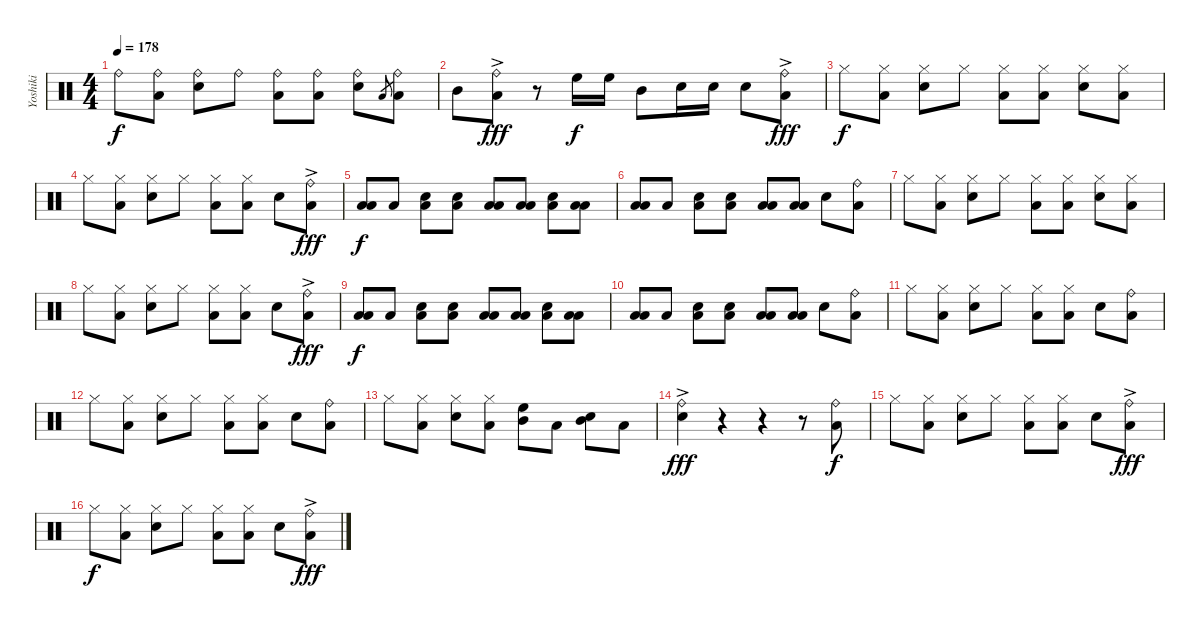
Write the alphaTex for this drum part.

\track ("Yoshiki" "Yoshiki") {instrument percussion}
\staff {score}
\articulation defaults
\ts (4 4)
\tempo 178
\clef neutral
\ks c "Ride (bell)".8{dy f}
("Ride (bell)" "Low Floor Tom (hit)").8 ("Ride (bell)" "Snare (hit) 2").8 "Ride (bell)".8 ("Ride (bell)" "Low Floor Tom (hit)").8 ("Ride (bell)" "Low Floor Tom (hit)").8 ("Ride (bell)" "Snare (hit) 2").8 "Low Floor Tom (hit)".8{gr} ("Ride (bell)" "Low Floor Tom (hit)").8 |
"Mid Tom (hit)".8 ("Ride (bell)"{ac} "Low Floor Tom (hit)").8{dy fff} r.8 "High Floor Tom (hit)".16{dy f} "High Floor Tom (hit)".16 "Mid Tom (hit)".8 "Snare (hit) 2".16 "Snare (hit) 2".16 "Snare (hit) 2".8 ("Ride (bell)"{ac} "Low Floor Tom (hit)").8{dy fff} |
"Hi-Hat (closed)".8{dy f} ("Hi-Hat (closed)" "Low Floor Tom (hit)").8 ("Hi-Hat (closed)" "Snare (hit) 2").8 "Hi-Hat (closed)".8 ("Hi-Hat (closed)" "Low Floor Tom (hit)").8 ("Hi-Hat (closed)" "Low Floor Tom (hit)").8 ("Hi-Hat (closed)" "Snare (hit) 2").8 ("Hi-Hat (closed)" "Low Floor Tom (hit)").8 |
"Hi-Hat (closed)".8 ("Hi-Hat (closed)" "Low Floor Tom (hit)").8 ("Hi-Hat (closed)" "Snare (hit) 2").8 "Hi-Hat (closed)".8 ("Hi-Hat (closed)" "Low Floor Tom (hit)").8 ("Hi-Hat (closed)" "Low Floor Tom (hit)").8 "Snare (hit) 2".8 ("Ride (bell)"{ac} "Low Floor Tom (hit)").8{dy fff} |
("Low Tom (hit)" "Low Floor Tom (hit)").8{dy f} "Low Tom (hit)".8 ("Low Tom (hit)" "Snare (hit) 2").8 ("Low Tom (hit)" "Snare (hit) 2").8 ("Low Tom (hit)" "Low Floor Tom (hit)").8 ("Low Tom (hit)" "Low Floor Tom (hit)").8 ("Low Tom (hit)" "Snare (hit) 2").8 ("Low Tom (hit)" "Low Floor Tom (hit)").8 |
("Low Tom (hit)" "Low Floor Tom (hit)").8 "Low Tom (hit)".8 ("Low Tom (hit)" "Snare (hit) 2").8 ("Low Tom (hit)" "Snare (hit) 2").8 ("Low Tom (hit)" "Low Floor Tom (hit)").8 ("Low Tom (hit)" "Low Floor Tom (hit)").8 "Snare (hit) 2".8 ("Ride (bell)" "Low Floor Tom (hit)").8 |
"Hi-Hat (closed)".8 ("Hi-Hat (closed)" "Low Floor Tom (hit)").8 ("Hi-Hat (closed)" "Snare (hit) 2").8 "Hi-Hat (closed)".8 ("Hi-Hat (closed)" "Low Floor Tom (hit)").8 ("Hi-Hat (closed)" "Low Floor Tom (hit)").8 ("Hi-Hat (closed)" "Snare (hit) 2").8 ("Hi-Hat (closed)" "Low Floor Tom (hit)").8 |
"Hi-Hat (closed)".8 ("Hi-Hat (closed)" "Low Floor Tom (hit)").8 ("Hi-Hat (closed)" "Snare (hit) 2").8 "Hi-Hat (closed)".8 ("Hi-Hat (closed)" "Low Floor Tom (hit)").8 ("Hi-Hat (closed)" "Low Floor Tom (hit)").8 "Snare (hit) 2".8 ("Ride (bell)"{ac} "Low Floor Tom (hit)").8{dy fff} |
("Low Tom (hit)" "Low Floor Tom (hit)").8{dy f} "Low Tom (hit)".8 ("Low Tom (hit)" "Snare (hit) 2").8 ("Low Tom (hit)" "Snare (hit) 2").8 ("Low Tom (hit)" "Low Floor Tom (hit)").8 ("Low Tom (hit)" "Low Floor Tom (hit)").8 ("Low Tom (hit)" "Snare (hit) 2").8 ("Low Tom (hit)" "Low Floor Tom (hit)").8 |
("Low Tom (hit)" "Low Floor Tom (hit)").8 "Low Tom (hit)".8 ("Low Tom (hit)" "Snare (hit) 2").8 ("Low Tom (hit)" "Snare (hit) 2").8 ("Low Tom (hit)" "Low Floor Tom (hit)").8 ("Low Tom (hit)" "Low Floor Tom (hit)").8 "Snare (hit) 2".8 ("Ride (bell)" "Low Floor Tom (hit)").8 |
"Hi-Hat (closed)".8 ("Hi-Hat (closed)" "Low Floor Tom (hit)").8 ("Hi-Hat (closed)" "Snare (hit) 2").8 "Hi-Hat (closed)".8 ("Hi-Hat (closed)" "Low Floor Tom (hit)").8 ("Hi-Hat (closed)" "Low Floor Tom (hit)").8 "Snare (hit) 2".8 ("Ride (bell)" "Low Floor Tom (hit)").8 |
"Hi-Hat (closed)".8 ("Hi-Hat (closed)" "Low Floor Tom (hit)").8 ("Hi-Hat (closed)" "Snare (hit) 2").8 "Hi-Hat (closed)".8 ("Hi-Hat (closed)" "Low Floor Tom (hit)").8 ("Hi-Hat (closed)" "Low Floor Tom (hit)").8 "Snare (hit) 2".8 ("Ride (bell)" "Low Floor Tom (hit)").8 |
"Hi-Hat (closed)".8 ("Hi-Hat (closed)" "Low Floor Tom (hit)").8 ("Hi-Hat (closed)" "Snare (hit) 2").8 ("Hi-Hat (closed)" "Low Floor Tom (hit)").8 ("High Floor Tom (hit)" "Mid Tom (hit)").8 "Low Floor Tom (hit)".8 ("Mid Tom (hit)" "Snare (hit) 2").8 "Low Floor Tom (hit)".8 |
("Ride (bell)"{ac} "Snare (hit) 2").4{dy fff} r.4 r.4 r.8 ("Ride (bell)" "Low Floor Tom (hit)").8{dy f} |
"Hi-Hat (closed)".8 ("Hi-Hat (closed)" "Low Floor Tom (hit)").8 ("Hi-Hat (closed)" "Snare (hit) 2").8 "Hi-Hat (closed)".8 ("Hi-Hat (closed)" "Low Floor Tom (hit)").8 ("Hi-Hat (closed)" "Low Floor Tom (hit)").8 "Snare (hit) 2".8 ("Ride (bell)"{ac} "Low Floor Tom (hit)").8{dy fff} |
"Hi-Hat (closed)".8{dy f} ("Hi-Hat (closed)" "Low Floor Tom (hit)").8 ("Hi-Hat (closed)" "Snare (hit) 2").8 "Hi-Hat (closed)".8 ("Hi-Hat (closed)" "Low Floor Tom (hit)").8 ("Hi-Hat (closed)" "Low Floor Tom (hit)").8 "Snare (hit) 2".8 ("Ride (bell)"{ac} "Low Floor Tom (hit)").8{dy fff}
